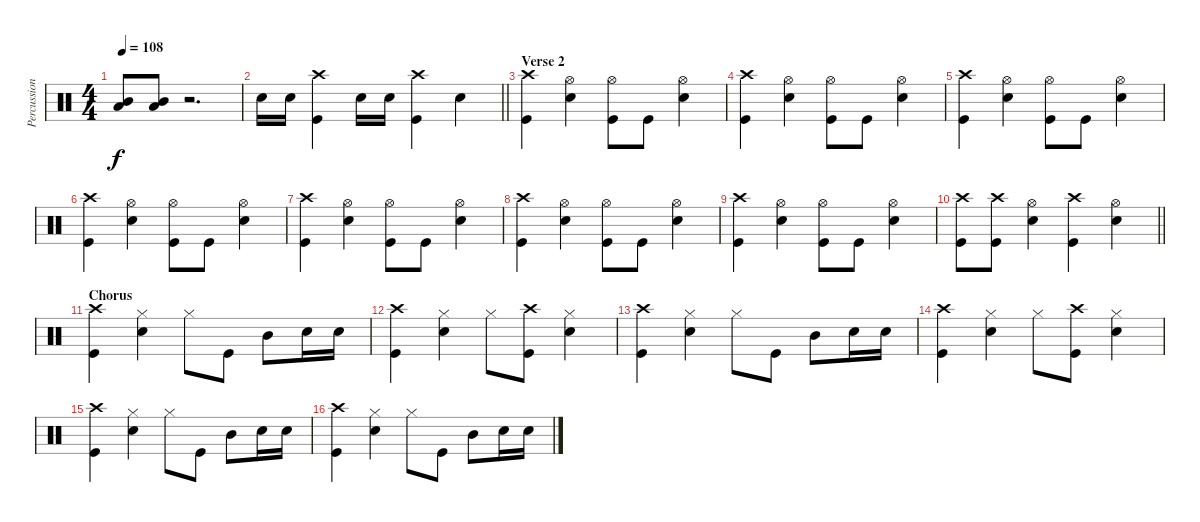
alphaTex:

\track ("Percussion" "Percussion") {instrument percussion}
\staff {score}
\articulation defaults
\ts (4 4)
\tempo 108
\clef neutral
\ks c
("Low Tom (hit)" "Mid Tom (hit)").8{dy f} ("Low Tom (hit)" "Mid Tom (hit)").8 r.2{d} |
\barLineRight lightlight "Snare (hit) 2".16 "Snare (hit) 2".16
("Crash high (hit)" "Kick (hit)").4 "Snare (hit) 2".16 "Snare (hit) 2".16 ("Crash high (hit)" "Kick (hit)").4 "Snare (hit) 2".4 |
\section ("" "Verse 2")
("Crash high (hit)" "Kick (hit)").4 ("Snare (hit) 2" "Hi-Hat (open)").4 ("Hi-Hat (open)" "Kick (hit)").8 "Kick (hit)".8 ("Hi-Hat (open)" "Snare (hit) 2").4 |
("Crash high (hit)" "Kick (hit)").4 ("Snare (hit) 2" "Hi-Hat (open)").4 ("Hi-Hat (open)" "Kick (hit)").8 "Kick (hit)".8 ("Hi-Hat (open)" "Snare (hit) 2").4 |
("Crash high (hit)" "Kick (hit)").4 ("Snare (hit) 2" "Hi-Hat (open)").4 ("Hi-Hat (open)" "Kick (hit)").8 "Kick (hit)".8 ("Hi-Hat (open)" "Snare (hit) 2").4 |
("Crash high (hit)" "Kick (hit)").4 ("Snare (hit) 2" "Hi-Hat (open)").4 ("Hi-Hat (open)" "Kick (hit)").8 "Kick (hit)".8 ("Hi-Hat (open)" "Snare (hit) 2").4 |
("Crash high (hit)" "Kick (hit)").4 ("Snare (hit) 2" "Hi-Hat (open)").4 ("Hi-Hat (open)" "Kick (hit)").8 "Kick (hit)".8 ("Hi-Hat (open)" "Snare (hit) 2").4 |
("Crash high (hit)" "Kick (hit)").4 ("Snare (hit) 2" "Hi-Hat (open)").4 ("Hi-Hat (open)" "Kick (hit)").8 "Kick (hit)".8 ("Hi-Hat (open)" "Snare (hit) 2").4 |
("Crash high (hit)" "Kick (hit)").4 ("Snare (hit) 2" "Hi-Hat (open)").4 ("Hi-Hat (open)" "Kick (hit)").8 "Kick (hit)".8 ("Hi-Hat (open)" "Snare (hit) 2").4 |
\barLineRight lightlight
("Crash high (hit)" "Kick (hit)").8 ("Crash high (hit)" "Kick (hit)").8 ("Hi-Hat (open)" "Snare (hit) 2").4 ("Crash high (hit)" "Kick (hit)").4 ("Hi-Hat (open)" "Snare (hit) 2").4 |
\section ("" "Chorus")
("Kick (hit)" "Crash high (hit)").4 ("Snare (hit) 2" "Hi-Hat (closed)").4 "Hi-Hat (closed)".8 "Kick (hit)".8 "Mid Tom (hit)".8 "Snare (hit) 2".16 "Snare (hit) 2".16 |
("Kick (hit)" "Crash high (hit)").4 ("Snare (hit) 2" "Hi-Hat (closed)").4 "Hi-Hat (closed)".8 ("Crash high (hit)" "Kick (hit)").8 ("Snare (hit) 2" "Hi-Hat (closed)").4 |
("Kick (hit)" "Crash high (hit)").4 ("Snare (hit) 2" "Hi-Hat (closed)").4 "Hi-Hat (closed)".8 "Kick (hit)".8 "Mid Tom (hit)".8 "Snare (hit) 2".16 "Snare (hit) 2".16 |
("Kick (hit)" "Crash high (hit)").4 ("Snare (hit) 2" "Hi-Hat (closed)").4 "Hi-Hat (closed)".8 ("Crash high (hit)" "Kick (hit)").8 ("Snare (hit) 2" "Hi-Hat (closed)").4 |
("Kick (hit)" "Crash high (hit)").4 ("Snare (hit) 2" "Hi-Hat (closed)").4 "Hi-Hat (closed)".8 "Kick (hit)".8 "Mid Tom (hit)".8 "Snare (hit) 2".16 "Snare (hit) 2".16 |
("Kick (hit)" "Crash high (hit)").4 ("Snare (hit) 2" "Hi-Hat (closed)").4 "Hi-Hat (closed)".8 "Kick (hit)".8 "Mid Tom (hit)".8 "Snare (hit) 2".16 "Snare (hit) 2".16
